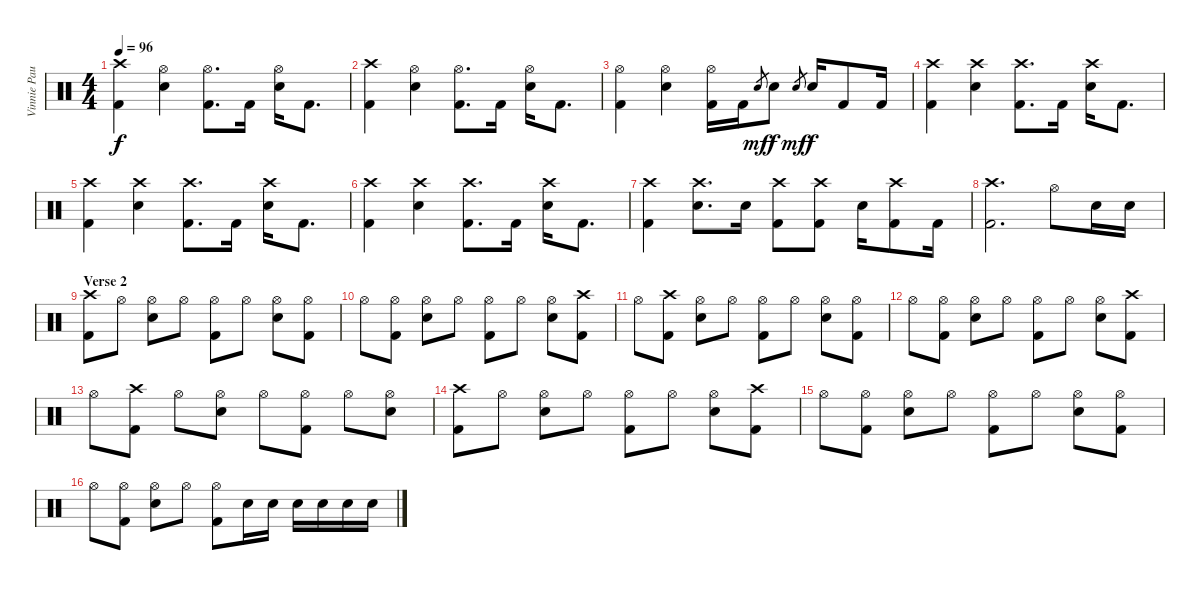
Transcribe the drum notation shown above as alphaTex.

\track ("Vinnie Paul" "Vinnie Pau") {instrument percussion}
\staff {score}
\articulation defaults
\ts (4 4)
\tempo 96
\clef neutral
\ks c
("Crash high (hit)" "Kick (hit) 2").4{dy f} ("Snare (hit) 2" "Hi-Hat (open)").4 ("Kick (hit) 2" "Hi-Hat (open)").8{d} "Kick (hit) 2".16 ("Snare (hit) 2" "Hi-Hat (open)").16 "Kick (hit) 2".8{d} |
("Crash high (hit)" "Kick (hit) 2").4 ("Snare (hit) 2" "Hi-Hat (open)").4 ("Kick (hit) 2" "Hi-Hat (open)").8{d} "Kick (hit) 2".16 ("Snare (hit) 2" "Hi-Hat (open)").16 "Kick (hit) 2".8{d} |
("Kick (hit) 2" "Hi-Hat (open)").4 ("Snare (hit) 2" "Hi-Hat (open)").4 ("Kick (hit) 2" "Hi-Hat (open)").16 "Kick (hit) 2".16 "Snare (hit)".8{gr dy mf} "Snare (hit) 2".8{dy f} "Snare (hit)".8{gr dy mf} "Snare (hit) 2".16{dy f} "Kick (hit) 2".8 "Kick (hit) 2".16 |
("Crash high (hit)" "Kick (hit) 2").4 ("Crash high (hit)" "Snare (hit) 2").4 ("Crash high (hit)" "Kick (hit) 2").8{d} "Kick (hit) 2".16 ("Crash high (hit)" "Snare (hit) 2").16 "Kick (hit) 2".8{d} |
("Crash high (hit)" "Kick (hit) 2").4 ("Crash high (hit)" "Snare (hit) 2").4 ("Crash high (hit)" "Kick (hit) 2").8{d} "Kick (hit) 2".16 ("Crash high (hit)" "Snare (hit) 2").16 "Kick (hit) 2".8{d} |
("Crash high (hit)" "Kick (hit) 2").4 ("Crash high (hit)" "Snare (hit) 2").4 ("Crash high (hit)" "Kick (hit) 2").8{d} "Kick (hit) 2".16 ("Crash high (hit)" "Snare (hit) 2").16 "Kick (hit) 2".8{d} |
("Crash high (hit)" "Kick (hit) 2").4 ("Crash high (hit)" "Snare (hit) 2").8{d} "Snare (hit) 2".16 ("Crash high (hit)" "Kick (hit) 2").8 ("Crash high (hit)" "Kick (hit) 2").8 "Snare (hit) 2".16 ("Crash high (hit)" "Kick (hit) 2").8 "Kick (hit) 2".16 |
("Crash high (hit)" "Kick (hit) 2").2{d} "Hi-Hat (open)".8 "Snare (hit) 2".16 "Snare (hit) 2".16 |
\section ("" "Verse 2")
("Crash high (hit)" "Kick (hit) 2").8 "Hi-Hat (open)".8 ("Snare (hit) 2" "Hi-Hat (open)").8 "Hi-Hat (open)".8 ("Kick (hit) 2" "Hi-Hat (open)").8 "Hi-Hat (open)".8 ("Snare (hit) 2" "Hi-Hat (open)").8 ("Kick (hit) 2" "Hi-Hat (open)").8 |
"Hi-Hat (open)".8 ("Kick (hit) 2" "Hi-Hat (open)").8 ("Snare (hit) 2" "Hi-Hat (open)").8 "Hi-Hat (open)".8 ("Kick (hit) 2" "Hi-Hat (open)").8 "Hi-Hat (open)".8 ("Snare (hit) 2" "Hi-Hat (open)").8 ("Crash high (hit)" "Kick (hit) 2").8 |
"Hi-Hat (open)".8 ("Crash high (hit)" "Kick (hit) 2").8 ("Snare (hit) 2" "Hi-Hat (open)").8 "Hi-Hat (open)".8 ("Kick (hit) 2" "Hi-Hat (open)").8 "Hi-Hat (open)".8 ("Snare (hit) 2" "Hi-Hat (open)").8 ("Kick (hit) 2" "Hi-Hat (open)").8 |
"Hi-Hat (open)".8 ("Kick (hit) 2" "Hi-Hat (open)").8 ("Snare (hit) 2" "Hi-Hat (open)").8 "Hi-Hat (open)".8 ("Kick (hit) 2" "Hi-Hat (open)").8 "Hi-Hat (open)".8 ("Snare (hit) 2" "Hi-Hat (open)").8 ("Crash high (hit)" "Kick (hit) 2").8 |
"Hi-Hat (open)".8 ("Crash high (hit)" "Kick (hit) 2").8 "Hi-Hat (open)".8 ("Snare (hit) 2" "Hi-Hat (open)").8 "Hi-Hat (open)".8 ("Kick (hit) 2" "Hi-Hat (open)").8 "Hi-Hat (open)".8 ("Snare (hit) 2" "Hi-Hat (open)").8 |
("Crash high (hit)" "Kick (hit) 2").8 "Hi-Hat (open)".8 ("Snare (hit) 2" "Hi-Hat (open)").8 "Hi-Hat (open)".8 ("Kick (hit) 2" "Hi-Hat (open)").8 "Hi-Hat (open)".8 ("Snare (hit) 2" "Hi-Hat (open)").8 ("Crash high (hit)" "Kick (hit) 2").8 |
"Hi-Hat (open)".8 ("Kick (hit) 2" "Hi-Hat (open)").8 ("Snare (hit) 2" "Hi-Hat (open)").8 "Hi-Hat (open)".8 ("Kick (hit) 2" "Hi-Hat (open)").8 "Hi-Hat (open)".8 ("Snare (hit) 2" "Hi-Hat (open)").8 ("Kick (hit) 2" "Hi-Hat (open)").8 |
"Hi-Hat (open)".8 ("Kick (hit) 2" "Hi-Hat (open)").8 ("Snare (hit) 2" "Hi-Hat (open)").8 "Hi-Hat (open)".8 ("Kick (hit) 2" "Hi-Hat (open)").8 "Snare (hit) 2".16 "Snare (hit) 2".16 "Snare (hit) 2".16 "Snare (hit) 2".16 "Snare (hit) 2".16 "Snare (hit) 2".16
